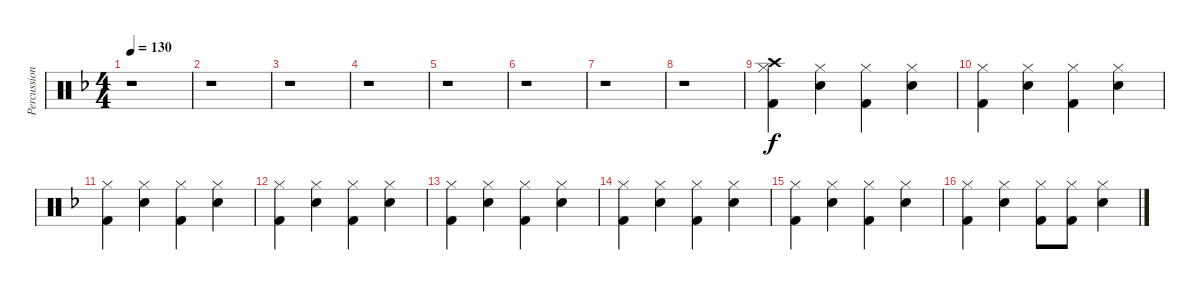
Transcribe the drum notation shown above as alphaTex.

\track ("Percussions" "Percussion") {instrument percussion}
\staff {score}
\articulation defaults
\ts (4 4)
\tempo 130
\clef neutral
\ks f
r.1{dy f} |
r.1 |
r.1 |
r.1 |
r.1 |
r.1 |
r.1 |
r.1 |
("Kick (hit) 2" "Hi-Hat (closed)" "Crash high (hit)").4 ("Snare (hit) 2" "Hi-Hat (closed)").4 ("Kick (hit) 2" "Hi-Hat (closed)").4 ("Snare (hit) 2" "Hi-Hat (closed)").4 |
("Kick (hit) 2" "Hi-Hat (closed)").4 ("Snare (hit) 2" "Hi-Hat (closed)").4 ("Kick (hit) 2" "Hi-Hat (closed)").4 ("Snare (hit) 2" "Hi-Hat (closed)").4 |
("Kick (hit) 2" "Hi-Hat (closed)").4 ("Snare (hit) 2" "Hi-Hat (closed)").4 ("Kick (hit) 2" "Hi-Hat (closed)").4 ("Snare (hit) 2" "Hi-Hat (closed)").4 |
("Kick (hit) 2" "Hi-Hat (closed)").4 ("Snare (hit) 2" "Hi-Hat (closed)").4 ("Kick (hit) 2" "Hi-Hat (closed)").4 ("Snare (hit) 2" "Hi-Hat (closed)").4 |
("Kick (hit) 2" "Hi-Hat (closed)").4 ("Snare (hit) 2" "Hi-Hat (closed)").4 ("Kick (hit) 2" "Hi-Hat (closed)").4 ("Snare (hit) 2" "Hi-Hat (closed)").4 |
("Kick (hit) 2" "Hi-Hat (closed)").4 ("Snare (hit) 2" "Hi-Hat (closed)").4 ("Kick (hit) 2" "Hi-Hat (closed)").4 ("Snare (hit) 2" "Hi-Hat (closed)").4 |
("Kick (hit) 2" "Hi-Hat (closed)").4 ("Snare (hit) 2" "Hi-Hat (closed)").4 ("Kick (hit) 2" "Hi-Hat (closed)").4 ("Snare (hit) 2" "Hi-Hat (closed)").4 |
("Kick (hit) 2" "Hi-Hat (closed)").4 ("Snare (hit) 2" "Hi-Hat (closed)").4 ("Kick (hit) 2" "Hi-Hat (closed)").8 ("Kick (hit) 2" "Hi-Hat (closed)").8 ("Snare (hit) 2" "Hi-Hat (closed)").4
